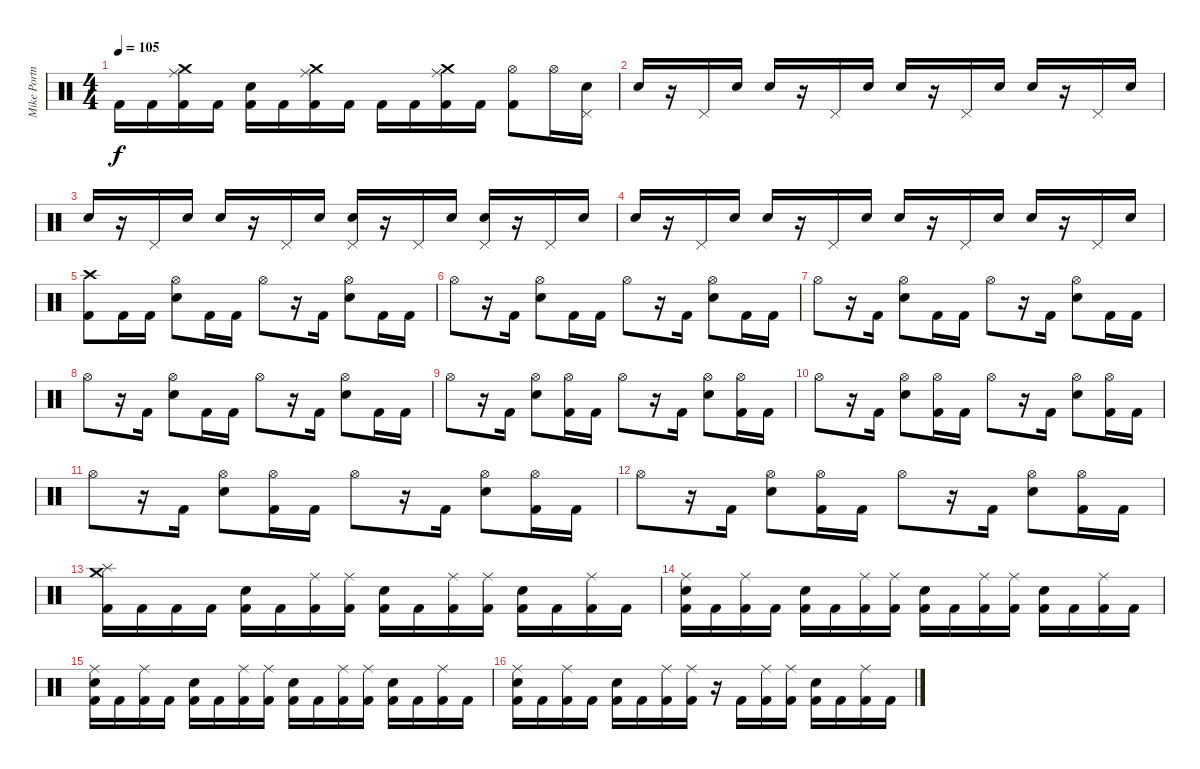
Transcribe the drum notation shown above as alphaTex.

\track ("Mike Portnoy" "Mike Portn") {instrument percussion}
\staff {score}
\articulation defaults
\ts (4 4)
\tempo 105
\clef neutral
\ks c "Kick (hit) 2".16{dy f} "Kick (hit) 2".16
("Crash medium (hit)" "Ride (middle)" "Kick (hit) 2").16 "Kick (hit) 2".16 ("Electric Snare (hit)" "Kick (hit) 2").16 "Kick (hit) 2".16 ("Crash medium (hit)" "Ride (middle)" "Kick (hit) 2").16 "Kick (hit) 2".16 "Kick (hit) 2".16 "Kick (hit) 2".16 ("Crash medium (hit)" "Ride (middle)" "Kick (hit) 2").16 "Kick (hit) 2".16 ("Hi-Hat (open)" "Kick (hit) 2").8 "Hi-Hat (open)".16 ("Pedal Hi-Hat (hit)" "Electric Snare (hit)").16 |
"Electric Snare (hit)".16 r.16 "Pedal Hi-Hat (hit)".16 "Electric Snare (hit)".16 "Electric Snare (hit)".16 r.16 "Pedal Hi-Hat (hit)".16 "Electric Snare (hit)".16 "Electric Snare (hit)".16 r.16 "Pedal Hi-Hat (hit)".16 "Electric Snare (hit)".16 "Electric Snare (hit)".16 r.16 "Pedal Hi-Hat (hit)".16 "Electric Snare (hit)".16 |
"Electric Snare (hit)".16 r.16 "Pedal Hi-Hat (hit)".16 "Electric Snare (hit)".16 "Electric Snare (hit)".16 r.16 "Pedal Hi-Hat (hit)".16 "Electric Snare (hit)".16 ("Pedal Hi-Hat (hit)" "Electric Snare (hit)").16 r.16 "Pedal Hi-Hat (hit)".16 "Electric Snare (hit)".16 ("Pedal Hi-Hat (hit)" "Electric Snare (hit)").16 r.16 "Pedal Hi-Hat (hit)".16 "Electric Snare (hit)".16 |
"Electric Snare (hit)".16 r.16 "Pedal Hi-Hat (hit)".16 "Electric Snare (hit)".16 "Electric Snare (hit)".16 r.16 "Pedal Hi-Hat (hit)".16 "Electric Snare (hit)".16 "Electric Snare (hit)".16 r.16 "Pedal Hi-Hat (hit)".16 "Electric Snare (hit)".16 "Electric Snare (hit)".16 r.16 "Pedal Hi-Hat (hit)".16 "Electric Snare (hit)".16 |
("Crash high (hit)" "Kick (hit) 2").8 "Kick (hit) 2".16 "Kick (hit) 2".16 ("Hi-Hat (open)" "Electric Snare (hit)").8 "Kick (hit) 2".16 "Kick (hit) 2".16 "Hi-Hat (open)".8 r.16 "Kick (hit) 2".16 ("Hi-Hat (open)" "Electric Snare (hit)").8 "Kick (hit) 2".16 "Kick (hit) 2".16 |
"Hi-Hat (open)".8 r.16 "Kick (hit) 2".16 ("Hi-Hat (open)" "Electric Snare (hit)").8 "Kick (hit) 2".16 "Kick (hit) 2".16 "Hi-Hat (open)".8 r.16 "Kick (hit) 2".16 ("Hi-Hat (open)" "Electric Snare (hit)").8 "Kick (hit) 2".16 "Kick (hit) 2".16 |
"Hi-Hat (open)".8 r.16 "Kick (hit) 2".16 ("Hi-Hat (open)" "Electric Snare (hit)").8 "Kick (hit) 2".16 "Kick (hit) 2".16 "Hi-Hat (open)".8 r.16 "Kick (hit) 2".16 ("Hi-Hat (open)" "Electric Snare (hit)").8 "Kick (hit) 2".16 "Kick (hit) 2".16 |
"Hi-Hat (open)".8 r.16 "Kick (hit) 2".16 ("Hi-Hat (open)" "Electric Snare (hit)").8 "Kick (hit) 2".16 "Kick (hit) 2".16 "Hi-Hat (open)".8 r.16 "Kick (hit) 2".16 ("Hi-Hat (open)" "Electric Snare (hit)").8 "Kick (hit) 2".16 "Kick (hit) 2".16 |
"Hi-Hat (open)".8 r.16 "Kick (hit) 2".16 ("Hi-Hat (open)" "Electric Snare (hit)").8 ("Hi-Hat (open)" "Kick (hit) 2").16 "Kick (hit) 2".16 "Hi-Hat (open)".8 r.16 "Kick (hit) 2".16 ("Hi-Hat (open)" "Electric Snare (hit)").8 ("Hi-Hat (open)" "Kick (hit) 2").16 "Kick (hit) 2".16 |
"Hi-Hat (open)".8 r.16 "Kick (hit) 2".16 ("Hi-Hat (open)" "Electric Snare (hit)").8 ("Hi-Hat (open)" "Kick (hit) 2").16 "Kick (hit) 2".16 "Hi-Hat (open)".8 r.16 "Kick (hit) 2".16 ("Hi-Hat (open)" "Electric Snare (hit)").8 ("Hi-Hat (open)" "Kick (hit) 2").16 "Kick (hit) 2".16 |
"Hi-Hat (open)".8 r.16 "Kick (hit) 2".16 ("Hi-Hat (open)" "Electric Snare (hit)").8 ("Hi-Hat (open)" "Kick (hit) 2").16 "Kick (hit) 2".16 "Hi-Hat (open)".8 r.16 "Kick (hit) 2".16 ("Hi-Hat (open)" "Electric Snare (hit)").8 ("Hi-Hat (open)" "Kick (hit) 2").16 "Kick (hit) 2".16 |
"Hi-Hat (open)".8 r.16 "Kick (hit) 2".16 ("Hi-Hat (open)" "Electric Snare (hit)").8 ("Hi-Hat (open)" "Kick (hit) 2").16 "Kick (hit) 2".16 "Hi-Hat (open)".8 r.16 "Kick (hit) 2".16 ("Hi-Hat (open)" "Electric Snare (hit)").8 ("Hi-Hat (open)" "Kick (hit) 2").16 "Kick (hit) 2".16 |
("Crash medium (hit)" "Splash (hit)" "Kick (hit) 2").16 "Kick (hit) 2".16 "Kick (hit) 2".16 "Kick (hit) 2".16 ("Electric Snare (hit)" "Kick (hit) 2").16 "Kick (hit) 2".16 ("Ride (middle)" "Kick (hit) 2").16 ("Ride (middle)" "Kick (hit) 2").16 ("Electric Snare (hit)" "Kick (hit) 2").16 "Kick (hit) 2".16 ("Ride (middle)" "Kick (hit) 2").16 ("Ride (middle)" "Kick (hit) 2").16 ("Electric Snare (hit)" "Kick (hit) 2").16 "Kick (hit) 2".16 ("Ride (middle)" "Kick (hit) 2").16 "Kick (hit) 2".16 |
("Ride (middle)" "Electric Snare (hit)" "Kick (hit) 2").16 "Kick (hit) 2".16 ("Ride (middle)" "Kick (hit) 2").16 "Kick (hit) 2".16 ("Electric Snare (hit)" "Kick (hit) 2").16 "Kick (hit) 2".16 ("Ride (middle)" "Kick (hit) 2").16 ("Ride (middle)" "Kick (hit) 2").16 ("Electric Snare (hit)" "Kick (hit) 2").16 "Kick (hit) 2".16 ("Ride (middle)" "Kick (hit) 2").16 ("Ride (middle)" "Kick (hit) 2").16 ("Electric Snare (hit)" "Kick (hit) 2").16 "Kick (hit) 2".16 ("Ride (middle)" "Kick (hit) 2").16 "Kick (hit) 2".16 |
("Ride (middle)" "Electric Snare (hit)" "Kick (hit) 2").16 "Kick (hit) 2".16 ("Ride (middle)" "Kick (hit) 2").16 "Kick (hit) 2".16 ("Electric Snare (hit)" "Kick (hit) 2").16 "Kick (hit) 2".16 ("Ride (middle)" "Kick (hit) 2").16 ("Ride (middle)" "Kick (hit) 2").16 ("Electric Snare (hit)" "Kick (hit) 2").16 "Kick (hit) 2".16 ("Ride (middle)" "Kick (hit) 2").16 ("Ride (middle)" "Kick (hit) 2").16 ("Electric Snare (hit)" "Kick (hit) 2").16 "Kick (hit) 2".16 ("Ride (middle)" "Kick (hit) 2").16 "Kick (hit) 2".16 |
("Ride (middle)" "Electric Snare (hit)" "Kick (hit) 2").16 "Kick (hit) 2".16 ("Ride (middle)" "Kick (hit) 2").16 "Kick (hit) 2".16 ("Electric Snare (hit)" "Kick (hit) 2").16 "Kick (hit) 2".16 ("Ride (middle)" "Kick (hit) 2").16 ("Ride (middle)" "Kick (hit) 2").16 r.16 "Kick (hit) 2".16 ("Ride (middle)" "Kick (hit) 2").16 ("Ride (middle)" "Kick (hit) 2").16 ("Electric Snare (hit)" "Kick (hit) 2").16 "Kick (hit) 2".16 ("Ride (middle)" "Kick (hit) 2").16 "Kick (hit) 2".16
